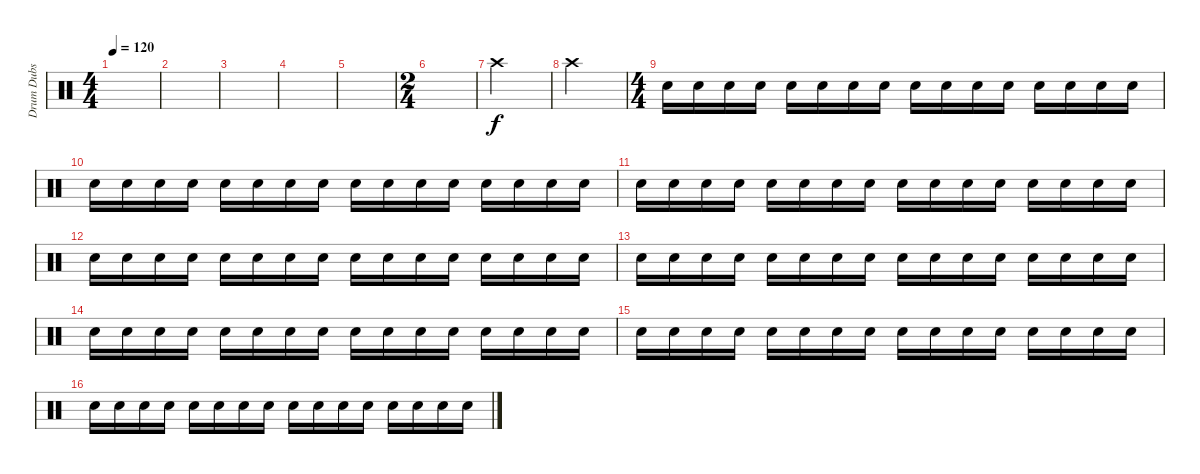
\track ("Drum Dubs" "Drum Dubs") {instrument percussion}
\staff {score}
\articulation defaults
\ts (4 4)
\tempo 120
\clef neutral
\ks c
|
|
|
|
|
\ts (2 4)
|
"Crash high (hit)".2 |
"Crash high (hit)".2 |
\ts (4 4)
"Electric Snare (hit)".16 "Electric Snare (hit)".16 "Electric Snare (hit)".16 "Electric Snare (hit)".16 "Electric Snare (hit)".16 "Electric Snare (hit)".16 "Electric Snare (hit)".16 "Electric Snare (hit)".16 "Electric Snare (hit)".16 "Electric Snare (hit)".16 "Electric Snare (hit)".16 "Electric Snare (hit)".16 "Electric Snare (hit)".16 "Electric Snare (hit)".16 "Electric Snare (hit)".16 "Electric Snare (hit)".16 |
"Electric Snare (hit)".16 "Electric Snare (hit)".16 "Electric Snare (hit)".16 "Electric Snare (hit)".16 "Electric Snare (hit)".16 "Electric Snare (hit)".16 "Electric Snare (hit)".16 "Electric Snare (hit)".16 "Electric Snare (hit)".16 "Electric Snare (hit)".16 "Electric Snare (hit)".16 "Electric Snare (hit)".16 "Electric Snare (hit)".16 "Electric Snare (hit)".16 "Electric Snare (hit)".16 "Electric Snare (hit)".16 |
"Electric Snare (hit)".16 "Electric Snare (hit)".16 "Electric Snare (hit)".16 "Electric Snare (hit)".16 "Electric Snare (hit)".16 "Electric Snare (hit)".16 "Electric Snare (hit)".16 "Electric Snare (hit)".16 "Electric Snare (hit)".16 "Electric Snare (hit)".16 "Electric Snare (hit)".16 "Electric Snare (hit)".16 "Electric Snare (hit)".16 "Electric Snare (hit)".16 "Electric Snare (hit)".16 "Electric Snare (hit)".16 |
"Electric Snare (hit)".16 "Electric Snare (hit)".16 "Electric Snare (hit)".16 "Electric Snare (hit)".16 "Electric Snare (hit)".16 "Electric Snare (hit)".16 "Electric Snare (hit)".16 "Electric Snare (hit)".16 "Electric Snare (hit)".16 "Electric Snare (hit)".16 "Electric Snare (hit)".16 "Electric Snare (hit)".16 "Electric Snare (hit)".16 "Electric Snare (hit)".16 "Electric Snare (hit)".16 "Electric Snare (hit)".16 |
"Electric Snare (hit)".16 "Electric Snare (hit)".16 "Electric Snare (hit)".16 "Electric Snare (hit)".16 "Electric Snare (hit)".16 "Electric Snare (hit)".16 "Electric Snare (hit)".16 "Electric Snare (hit)".16 "Electric Snare (hit)".16 "Electric Snare (hit)".16 "Electric Snare (hit)".16 "Electric Snare (hit)".16 "Electric Snare (hit)".16 "Electric Snare (hit)".16 "Electric Snare (hit)".16 "Electric Snare (hit)".16 |
"Electric Snare (hit)".16 "Electric Snare (hit)".16 "Electric Snare (hit)".16 "Electric Snare (hit)".16 "Electric Snare (hit)".16 "Electric Snare (hit)".16 "Electric Snare (hit)".16 "Electric Snare (hit)".16 "Electric Snare (hit)".16 "Electric Snare (hit)".16 "Electric Snare (hit)".16 "Electric Snare (hit)".16 "Electric Snare (hit)".16 "Electric Snare (hit)".16 "Electric Snare (hit)".16 "Electric Snare (hit)".16 |
"Electric Snare (hit)".16 "Electric Snare (hit)".16 "Electric Snare (hit)".16 "Electric Snare (hit)".16 "Electric Snare (hit)".16 "Electric Snare (hit)".16 "Electric Snare (hit)".16 "Electric Snare (hit)".16 "Electric Snare (hit)".16 "Electric Snare (hit)".16 "Electric Snare (hit)".16 "Electric Snare (hit)".16 "Electric Snare (hit)".16 "Electric Snare (hit)".16 "Electric Snare (hit)".16 "Electric Snare (hit)".16 |
"Electric Snare (hit)".16 "Electric Snare (hit)".16 "Electric Snare (hit)".16 "Electric Snare (hit)".16 "Electric Snare (hit)".16 "Electric Snare (hit)".16 "Electric Snare (hit)".16 "Electric Snare (hit)".16 "Electric Snare (hit)".16 "Electric Snare (hit)".16 "Electric Snare (hit)".16 "Electric Snare (hit)".16 "Electric Snare (hit)".16 "Electric Snare (hit)".16 "Electric Snare (hit)".16 "Electric Snare (hit)".16
